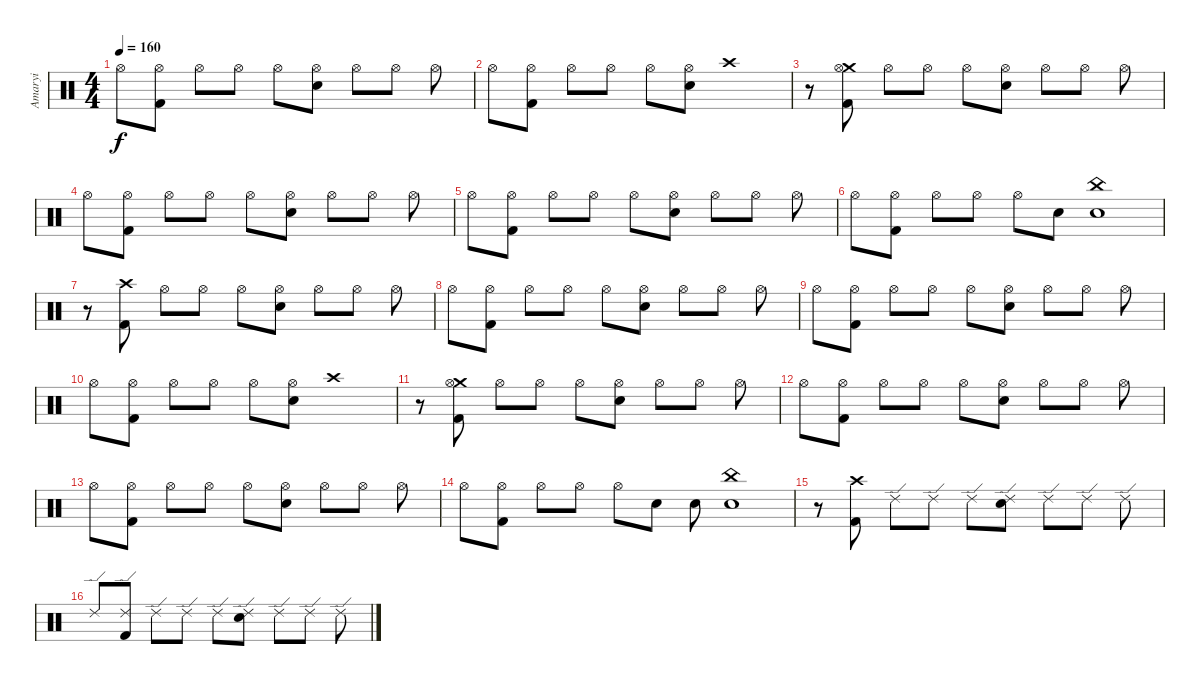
\track ("Amaryi" "Amaryi") {instrument percussion}
\staff {score}
\articulation defaults
\ts (4 4)
\tempo 160
\clef neutral
\ks c "Hi-Hat (open)".8{dy f}
("Hi-Hat (open)" "Kick (hit) 2").8 "Hi-Hat (open)".8 "Hi-Hat (open)".8 "Hi-Hat (open)".8 ("Hi-Hat (open)" "Electric Snare (hit)").8 "Hi-Hat (open)".8 "Hi-Hat (open)".8 "Hi-Hat (open)".8 |
"Hi-Hat (open)".8 ("Hi-Hat (open)" "Kick (hit) 2").8 "Hi-Hat (open)".8 "Hi-Hat (open)".8 "Hi-Hat (open)".8 ("Hi-Hat (open)" "Electric Snare (hit)").8 "Crash high (hit)".1 |
r.8 ("Crash medium (hit)" "Hi-Hat (open)" "Kick (hit) 2").8 "Hi-Hat (open)".8 "Hi-Hat (open)".8 "Hi-Hat (open)".8 ("Hi-Hat (open)" "Electric Snare (hit)").8 "Hi-Hat (open)".8 "Hi-Hat (open)".8 "Hi-Hat (open)".8 |
"Hi-Hat (open)".8 ("Hi-Hat (open)" "Kick (hit) 2").8 "Hi-Hat (open)".8 "Hi-Hat (open)".8 "Hi-Hat (open)".8 ("Hi-Hat (open)" "Electric Snare (hit)").8 "Hi-Hat (open)".8 "Hi-Hat (open)".8 "Hi-Hat (open)".8 |
"Hi-Hat (open)".8 ("Hi-Hat (open)" "Kick (hit) 2").8 "Hi-Hat (open)".8 "Hi-Hat (open)".8 "Hi-Hat (open)".8 ("Hi-Hat (open)" "Electric Snare (hit)").8 "Hi-Hat (open)".8 "Hi-Hat (open)".8 "Hi-Hat (open)".8 |
"Hi-Hat (open)".8 ("Hi-Hat (open)" "Kick (hit) 2").8 "Hi-Hat (open)".8 "Hi-Hat (open)".8 "Hi-Hat (open)".8 "Electric Snare (hit)".8 ("China (hit)" "Electric Snare (hit)").1 |
r.8 ("Crash high (hit)" "Kick (hit) 2").8 "Hi-Hat (open)".8 "Hi-Hat (open)".8 "Hi-Hat (open)".8 ("Hi-Hat (open)" "Electric Snare (hit)").8 "Hi-Hat (open)".8 "Hi-Hat (open)".8 "Hi-Hat (open)".8 |
"Hi-Hat (open)".8 ("Hi-Hat (open)" "Kick (hit) 2").8 "Hi-Hat (open)".8 "Hi-Hat (open)".8 "Hi-Hat (open)".8 ("Hi-Hat (open)" "Electric Snare (hit)").8 "Hi-Hat (open)".8 "Hi-Hat (open)".8 "Hi-Hat (open)".8 |
"Hi-Hat (open)".8 ("Hi-Hat (open)" "Kick (hit) 2").8 "Hi-Hat (open)".8 "Hi-Hat (open)".8 "Hi-Hat (open)".8 ("Hi-Hat (open)" "Electric Snare (hit)").8 "Hi-Hat (open)".8 "Hi-Hat (open)".8 "Hi-Hat (open)".8 |
"Hi-Hat (open)".8 ("Hi-Hat (open)" "Kick (hit) 2").8 "Hi-Hat (open)".8 "Hi-Hat (open)".8 "Hi-Hat (open)".8 ("Hi-Hat (open)" "Electric Snare (hit)").8 "Crash high (hit)".1 |
r.8 ("Crash medium (hit)" "Hi-Hat (open)" "Kick (hit) 2").8 "Hi-Hat (open)".8 "Hi-Hat (open)".8 "Hi-Hat (open)".8 ("Hi-Hat (open)" "Electric Snare (hit)").8 "Hi-Hat (open)".8 "Hi-Hat (open)".8 "Hi-Hat (open)".8 |
"Hi-Hat (open)".8 ("Hi-Hat (open)" "Kick (hit) 2").8 "Hi-Hat (open)".8 "Hi-Hat (open)".8 "Hi-Hat (open)".8 ("Hi-Hat (open)" "Electric Snare (hit)").8 "Hi-Hat (open)".8 "Hi-Hat (open)".8 "Hi-Hat (open)".8 |
"Hi-Hat (open)".8 ("Hi-Hat (open)" "Kick (hit) 2").8 "Hi-Hat (open)".8 "Hi-Hat (open)".8 "Hi-Hat (open)".8 ("Hi-Hat (open)" "Electric Snare (hit)").8 "Hi-Hat (open)".8 "Hi-Hat (open)".8 "Hi-Hat (open)".8 |
"Hi-Hat (open)".8 ("Hi-Hat (open)" "Kick (hit) 2").8 "Hi-Hat (open)".8 "Hi-Hat (open)".8 "Hi-Hat (open)".8 "Electric Snare (hit)".8 "Electric Snare (hit)".8 ("China (hit)" "Electric Snare (hit)").1 |
r.8 ("Crash high (hit)" "Kick (hit) 2").8 "Ride (edge) 2".8 "Ride (edge) 2".8 "Ride (edge) 2".8 ("Ride (edge) 2" "Electric Snare (hit)").8 "Ride (edge) 2".8 "Ride (edge) 2".8 "Ride (edge) 2".8 |
"Ride (edge) 2".8 ("Ride (edge) 2" "Kick (hit) 2").8 "Ride (edge) 2".8 "Ride (edge) 2".8 "Ride (edge) 2".8 ("Ride (edge) 2" "Electric Snare (hit)").8 "Ride (edge) 2".8 "Ride (edge) 2".8 "Ride (edge) 2".8
